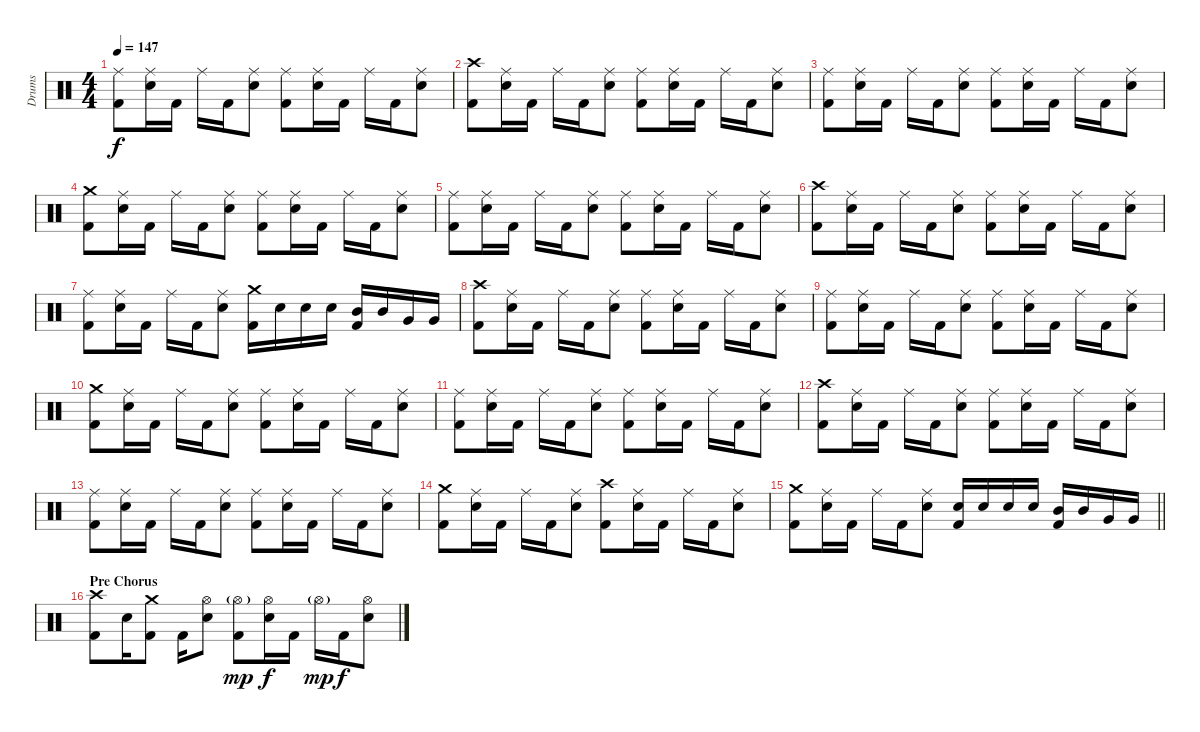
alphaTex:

\track ("Drums" "Drums") {instrument percussion}
\staff {score}
\articulation defaults
\ts (4 4)
\tempo 147
\clef neutral
\ks aminor
("Ride (middle)" "Kick (hit) 2").8{dy f} ("Ride (middle)" "Electric Snare (hit)").16 "Kick (hit) 2".16 "Ride (middle)".16 "Kick (hit) 2".16 ("Ride (middle)" "Electric Snare (hit)").8 ("Ride (middle)" "Kick (hit) 2").8 ("Ride (middle)" "Electric Snare (hit)").16 "Kick (hit) 2".16 "Ride (middle)".16 "Kick (hit) 2".16 ("Ride (middle)" "Electric Snare (hit)").8 |
("Crash high (hit)" "Kick (hit) 2").8 ("Ride (middle)" "Electric Snare (hit)").16 "Kick (hit) 2".16 "Ride (middle)".16 "Kick (hit) 2".16 ("Ride (middle)" "Electric Snare (hit)").8 ("Ride (middle)" "Kick (hit) 2").8 ("Ride (middle)" "Electric Snare (hit)").16 "Kick (hit) 2".16 "Ride (middle)".16 "Kick (hit) 2".16 ("Ride (middle)" "Electric Snare (hit)").8 |
("Ride (middle)" "Kick (hit) 2").8 ("Ride (middle)" "Electric Snare (hit)").16 "Kick (hit) 2".16 "Ride (middle)".16 "Kick (hit) 2".16 ("Ride (middle)" "Electric Snare (hit)").8 ("Ride (middle)" "Kick (hit) 2").8 ("Ride (middle)" "Electric Snare (hit)").16 "Kick (hit) 2".16 "Ride (middle)".16 "Kick (hit) 2".16 ("Ride (middle)" "Electric Snare (hit)").8 |
("Crash medium (hit)" "Kick (hit) 2").8 ("Ride (middle)" "Electric Snare (hit)").16 "Kick (hit) 2".16 "Ride (middle)".16 "Kick (hit) 2".16 ("Ride (middle)" "Electric Snare (hit)").8 ("Ride (middle)" "Kick (hit) 2").8 ("Ride (middle)" "Electric Snare (hit)").16 "Kick (hit) 2".16 "Ride (middle)".16 "Kick (hit) 2".16 ("Ride (middle)" "Electric Snare (hit)").8 |
("Ride (middle)" "Kick (hit) 2").8 ("Ride (middle)" "Electric Snare (hit)").16 "Kick (hit) 2".16 "Ride (middle)".16 "Kick (hit) 2".16 ("Ride (middle)" "Electric Snare (hit)").8 ("Ride (middle)" "Kick (hit) 2").8 ("Ride (middle)" "Electric Snare (hit)").16 "Kick (hit) 2".16 "Ride (middle)".16 "Kick (hit) 2".16 ("Ride (middle)" "Electric Snare (hit)").8 |
("Crash high (hit)" "Kick (hit) 2").8 ("Ride (middle)" "Electric Snare (hit)").16 "Kick (hit) 2".16 "Ride (middle)".16 "Kick (hit) 2".16 ("Ride (middle)" "Electric Snare (hit)").8 ("Ride (middle)" "Kick (hit) 2").8 ("Ride (middle)" "Electric Snare (hit)").16 "Kick (hit) 2".16 "Ride (middle)".16 "Kick (hit) 2".16 ("Ride (middle)" "Electric Snare (hit)").8 |
("Ride (middle)" "Kick (hit) 2").8 ("Ride (middle)" "Electric Snare (hit)").16 "Kick (hit) 2".16 "Ride (middle)".16 "Kick (hit) 2".16 ("Ride (middle)" "Electric Snare (hit)").8 ("Crash medium (hit)" "Kick (hit) 2").16 "Electric Snare (hit)".16 "Electric Snare (hit)".16 "Electric Snare (hit)".16 ("Mid Tom (hit)" "Kick (hit) 2").16 "Mid Tom (hit)".16 "Very Low Tom (hit)".16 "Very Low Tom (hit)".16 |
("Crash high (hit)" "Kick (hit) 2").8 ("Ride (middle)" "Electric Snare (hit)").16 "Kick (hit) 2".16 "Ride (middle)".16 "Kick (hit) 2".16 ("Ride (middle)" "Electric Snare (hit)").8 ("Ride (middle)" "Kick (hit) 2").8 ("Ride (middle)" "Electric Snare (hit)").16 "Kick (hit) 2".16 "Ride (middle)".16 "Kick (hit) 2".16 ("Ride (middle)" "Electric Snare (hit)").8 |
("Ride (middle)" "Kick (hit) 2").8 ("Ride (middle)" "Electric Snare (hit)").16 "Kick (hit) 2".16 "Ride (middle)".16 "Kick (hit) 2".16 ("Ride (middle)" "Electric Snare (hit)").8 ("Ride (middle)" "Kick (hit) 2").8 ("Ride (middle)" "Electric Snare (hit)").16 "Kick (hit) 2".16 "Ride (middle)".16 "Kick (hit) 2".16 ("Ride (middle)" "Electric Snare (hit)").8 |
("Crash medium (hit)" "Kick (hit) 2").8 ("Ride (middle)" "Electric Snare (hit)").16 "Kick (hit) 2".16 "Ride (middle)".16 "Kick (hit) 2".16 ("Ride (middle)" "Electric Snare (hit)").8 ("Ride (middle)" "Kick (hit) 2").8 ("Ride (middle)" "Electric Snare (hit)").16 "Kick (hit) 2".16 "Ride (middle)".16 "Kick (hit) 2".16 ("Ride (middle)" "Electric Snare (hit)").8 |
("Ride (middle)" "Kick (hit) 2").8 ("Ride (middle)" "Electric Snare (hit)").16 "Kick (hit) 2".16 "Ride (middle)".16 "Kick (hit) 2".16 ("Ride (middle)" "Electric Snare (hit)").8 ("Ride (middle)" "Kick (hit) 2").8 ("Ride (middle)" "Electric Snare (hit)").16 "Kick (hit) 2".16 "Ride (middle)".16 "Kick (hit) 2".16 ("Ride (middle)" "Electric Snare (hit)").8 |
("Crash high (hit)" "Kick (hit) 2").8 ("Ride (middle)" "Electric Snare (hit)").16 "Kick (hit) 2".16 "Ride (middle)".16 "Kick (hit) 2".16 ("Ride (middle)" "Electric Snare (hit)").8 ("Ride (middle)" "Kick (hit) 2").8 ("Ride (middle)" "Electric Snare (hit)").16 "Kick (hit) 2".16 "Ride (middle)".16 "Kick (hit) 2".16 ("Ride (middle)" "Electric Snare (hit)").8 |
("Ride (middle)" "Kick (hit) 2").8 ("Ride (middle)" "Electric Snare (hit)").16 "Kick (hit) 2".16 "Ride (middle)".16 "Kick (hit) 2".16 ("Ride (middle)" "Electric Snare (hit)").8 ("Ride (middle)" "Kick (hit) 2").8 ("Ride (middle)" "Electric Snare (hit)").16 "Kick (hit) 2".16 "Ride (middle)".16 "Kick (hit) 2".16 ("Ride (middle)" "Electric Snare (hit)").8 |
("Crash medium (hit)" "Kick (hit) 2").8 ("Ride (middle)" "Electric Snare (hit)").16 "Kick (hit) 2".16 "Ride (middle)".16 "Kick (hit) 2".16 ("Ride (middle)" "Electric Snare (hit)").8 ("Crash high (hit)" "Kick (hit) 2").8 ("Ride (middle)" "Electric Snare (hit)").16 "Kick (hit) 2".16 "Ride (middle)".16 "Kick (hit) 2".16 ("Ride (middle)" "Electric Snare (hit)").8 |
\barLineRight lightlight
("Crash medium (hit)" "Kick (hit) 2").8 ("Ride (middle)" "Electric Snare (hit)").16 "Kick (hit) 2".16 "Ride (middle)".16 "Kick (hit) 2".16 ("Ride (middle)" "Electric Snare (hit)").8 ("Electric Snare (hit)" "Kick (hit) 2").16 "Electric Snare (hit)".16 "Electric Snare (hit)".16 "Electric Snare (hit)".16 ("Mid Tom (hit)" "Kick (hit) 2").16 "Mid Tom (hit)".16 "Very Low Tom (hit)".16 "Very Low Tom (hit)".16 |
\section ("" "Pre Chorus")
("Crash high (hit)" "Kick (hit) 2").8 "Electric Snare (hit)".16 ("Crash medium (hit)" "Kick (hit) 2").8 "Kick (hit) 2".16 ("Hi-Hat (open)" "Electric Snare (hit)").8 ("Hi-Hat (open)"{g} "Kick (hit) 2").8{dy mp} ("Hi-Hat (open)" "Electric Snare (hit)").16{dy f} "Kick (hit) 2".16 "Hi-Hat (open)"{g}.16{dy mp} "Kick (hit) 2".16{dy f} ("Hi-Hat (open)" "Electric Snare (hit)").8
